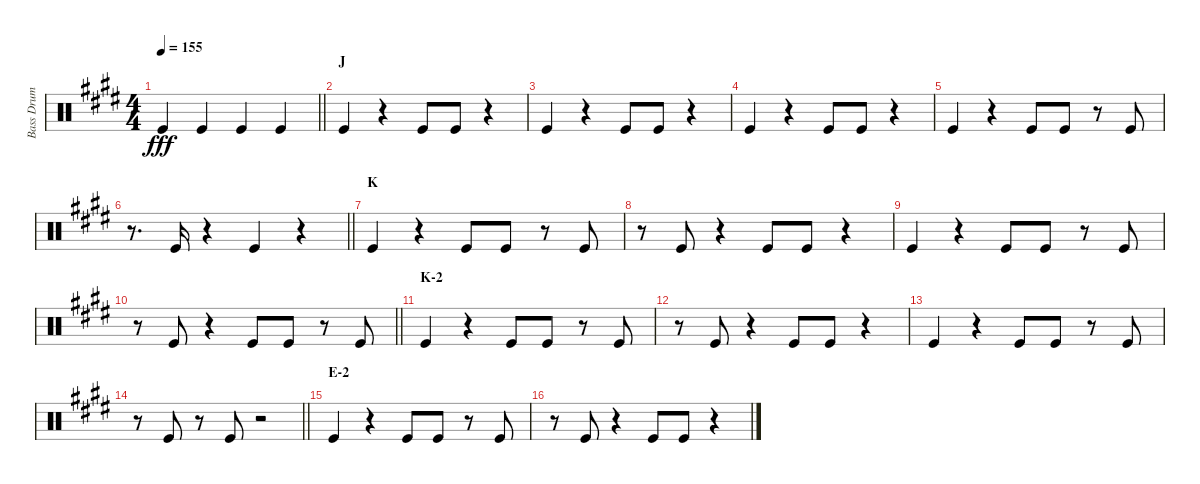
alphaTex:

\track ("Bass Drum" "Bass Drum") {instrument percussion}
\staff {score}
\articulation defaults
\ts (4 4)
\tempo 155
\clef neutral
\barLineRight lightlight
\ks e "Kick (hit)".4{dy fff} "Kick (hit)".4 "Kick (hit)".4 "Kick (hit)".4
|
\section ("" "J")
"Kick (hit)".4 r.4 "Kick (hit)".8 "Kick (hit)".8 r.4 |
"Kick (hit)".4 r.4 "Kick (hit)".8 "Kick (hit)".8 r.4 |
"Kick (hit)".4 r.4 "Kick (hit)".8 "Kick (hit)".8 r.4 |
"Kick (hit)".4 r.4 "Kick (hit)".8 "Kick (hit)".8 r.8 "Kick (hit)".8 |
\barLineRight lightlight
r.8{d} "Kick (hit)".16 r.4 "Kick (hit)".4 r.4 |
\section ("" "K")
"Kick (hit)".4 r.4 "Kick (hit)".8 "Kick (hit)".8 r.8 "Kick (hit)".8 |
r.8 "Kick (hit)".8 r.4 "Kick (hit)".8 "Kick (hit)".8 r.4 |
"Kick (hit)".4 r.4 "Kick (hit)".8 "Kick (hit)".8 r.8 "Kick (hit)".8 |
\barLineRight lightlight
r.8 "Kick (hit)".8 r.4 "Kick (hit)".8 "Kick (hit)".8 r.8 "Kick (hit)".8 |
\section ("" "K-2")
"Kick (hit)".4 r.4 "Kick (hit)".8 "Kick (hit)".8 r.8 "Kick (hit)".8 |
r.8 "Kick (hit)".8 r.4 "Kick (hit)".8 "Kick (hit)".8 r.4 |
"Kick (hit)".4 r.4 "Kick (hit)".8 "Kick (hit)".8 r.8 "Kick (hit)".8 |
\barLineRight lightlight
r.8 "Kick (hit)".8 r.8 "Kick (hit)".8 r.2 |
\section ("" "E-2")
"Kick (hit)".4 r.4 "Kick (hit)".8 "Kick (hit)".8 r.8 "Kick (hit)".8 |
r.8 "Kick (hit)".8 r.4 "Kick (hit)".8 "Kick (hit)".8 r.4
